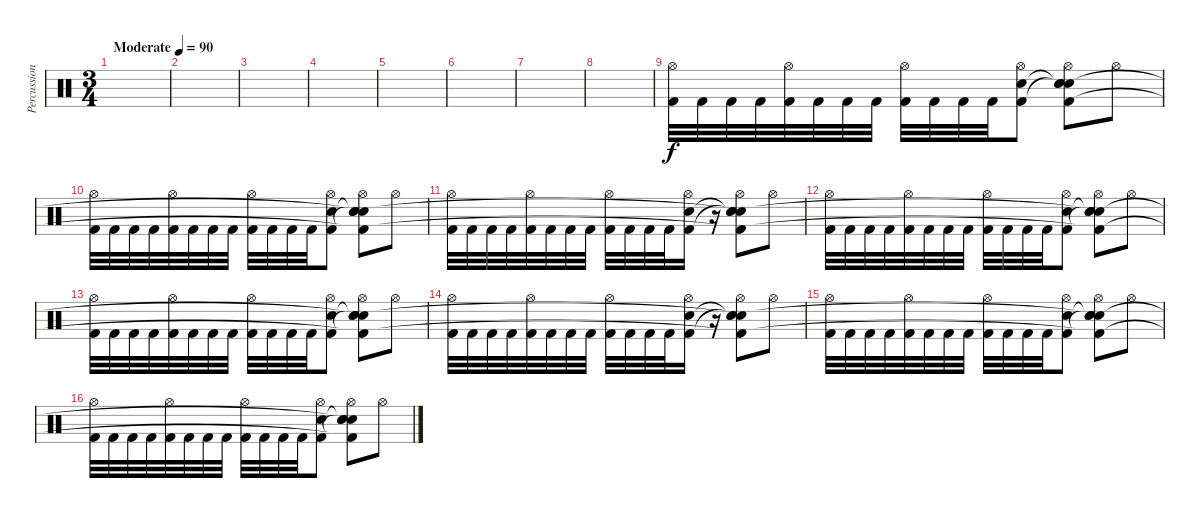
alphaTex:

\track ("Percussion" "Percussion") {instrument percussion}
\staff {score}
\articulation defaults
\ts (3 4)
\tempo (90 "Moderate")
\clef neutral
\ks c
|
|
|
|
|
|
|
|
("Hi-Hat (open)" "Kick (hit) 2").32 "Kick (hit) 2".32 "Kick (hit) 2".32 "Kick (hit) 2".32 ("Hi-Hat (open)" "Kick (hit) 2").32 "Kick (hit) 2".32 "Kick (hit) 2".32 "Kick (hit) 2".32 ("Hi-Hat (open)" "Kick (hit) 2").32 "Kick (hit) 2".32 "Kick (hit) 2".32 "Kick (hit) 2".32 ("Hi-Hat (open)" "Snare (hit) 2" "Kick (hit) 2").8 ("Hi-Hat (open)" "Snare (hit) 2"{t} "Snare (hit) 2"{t} "Snare (hit) 2" "Kick (hit) 2").8 "Hi-Hat (open)".8 |
("Hi-Hat (open)" "Kick (hit) 2").32 "Kick (hit) 2".32 "Kick (hit) 2".32 "Kick (hit) 2".32 ("Hi-Hat (open)" "Kick (hit) 2").32 "Kick (hit) 2".32 "Kick (hit) 2".32 "Kick (hit) 2".32 ("Hi-Hat (open)" "Kick (hit) 2").32 "Kick (hit) 2".32 "Kick (hit) 2".32 "Kick (hit) 2".32 ("Hi-Hat (open)" "Snare (hit) 2" "Kick (hit) 2").8 ("Hi-Hat (open)" "Snare (hit) 2"{t} "Snare (hit) 2"{t} "Snare (hit) 2"{t} "Kick (hit) 2"{t}).8 "Hi-Hat (open)".8 |
("Hi-Hat (open)" "Kick (hit) 2").32 "Kick (hit) 2".32 "Kick (hit) 2".32 "Kick (hit) 2".32 ("Hi-Hat (open)" "Kick (hit) 2").32 "Kick (hit) 2".32 "Kick (hit) 2".32 "Kick (hit) 2".32 ("Hi-Hat (open)" "Kick (hit) 2").32 "Kick (hit) 2".32 "Kick (hit) 2".32 "Kick (hit) 2".32 ("Hi-Hat (open)" "Snare (hit) 2" "Kick (hit) 2").16 r.16 ("Hi-Hat (open)" "Snare (hit) 2"{t} "Snare (hit) 2"{t} "Snare (hit) 2"{t} "Kick (hit) 2"{t}).8 "Hi-Hat (open)".8 |
("Hi-Hat (open)" "Kick (hit) 2").32 "Kick (hit) 2".32 "Kick (hit) 2".32 "Kick (hit) 2".32 ("Hi-Hat (open)" "Kick (hit) 2").32 "Kick (hit) 2".32 "Kick (hit) 2".32 "Kick (hit) 2".32 ("Hi-Hat (open)" "Kick (hit) 2").32 "Kick (hit) 2".32 "Kick (hit) 2".32 "Kick (hit) 2".32 ("Hi-Hat (open)" "Snare (hit) 2" "Kick (hit) 2").8 ("Hi-Hat (open)" "Snare (hit) 2"{t} "Snare (hit) 2"{t} "Snare (hit) 2"{t} "Kick (hit) 2"{t}).8 "Hi-Hat (open)".8 |
("Hi-Hat (open)" "Kick (hit) 2").32 "Kick (hit) 2".32 "Kick (hit) 2".32 "Kick (hit) 2".32 ("Hi-Hat (open)" "Kick (hit) 2").32 "Kick (hit) 2".32 "Kick (hit) 2".32 "Kick (hit) 2".32 ("Hi-Hat (open)" "Kick (hit) 2").32 "Kick (hit) 2".32 "Kick (hit) 2".32 "Kick (hit) 2".32 ("Hi-Hat (open)" "Snare (hit) 2" "Kick (hit) 2").8 ("Hi-Hat (open)" "Snare (hit) 2"{t} "Snare (hit) 2"{t} "Snare (hit) 2"{t} "Kick (hit) 2"{t}).8 "Hi-Hat (open)".8 |
("Hi-Hat (open)" "Kick (hit) 2").32 "Kick (hit) 2".32 "Kick (hit) 2".32 "Kick (hit) 2".32 ("Hi-Hat (open)" "Kick (hit) 2").32 "Kick (hit) 2".32 "Kick (hit) 2".32 "Kick (hit) 2".32 ("Hi-Hat (open)" "Kick (hit) 2").32 "Kick (hit) 2".32 "Kick (hit) 2".32 "Kick (hit) 2".32 ("Hi-Hat (open)" "Snare (hit) 2" "Kick (hit) 2").16 r.16 ("Hi-Hat (open)" "Snare (hit) 2"{t} "Snare (hit) 2"{t} "Snare (hit) 2"{t} "Kick (hit) 2"{t}).8 "Hi-Hat (open)".8 |
("Hi-Hat (open)" "Kick (hit) 2").32 "Kick (hit) 2".32 "Kick (hit) 2".32 "Kick (hit) 2".32 ("Hi-Hat (open)" "Kick (hit) 2").32 "Kick (hit) 2".32 "Kick (hit) 2".32 "Kick (hit) 2".32 ("Hi-Hat (open)" "Kick (hit) 2").32 "Kick (hit) 2".32 "Kick (hit) 2".32 "Kick (hit) 2".32 ("Hi-Hat (open)" "Snare (hit) 2" "Kick (hit) 2").8 ("Hi-Hat (open)" "Snare (hit) 2"{t} "Snare (hit) 2"{t} "Snare (hit) 2"{t} "Kick (hit) 2"{t}).8 "Hi-Hat (open)".8 |
("Hi-Hat (open)" "Kick (hit) 2").32 "Kick (hit) 2".32 "Kick (hit) 2".32 "Kick (hit) 2".32 ("Hi-Hat (open)" "Kick (hit) 2").32 "Kick (hit) 2".32 "Kick (hit) 2".32 "Kick (hit) 2".32 ("Hi-Hat (open)" "Kick (hit) 2").32 "Kick (hit) 2".32 "Kick (hit) 2".32 "Kick (hit) 2".32 ("Hi-Hat (open)" "Snare (hit) 2" "Kick (hit) 2").8 ("Hi-Hat (open)" "Snare (hit) 2"{t} "Snare (hit) 2"{t} "Snare (hit) 2"{t} "Kick (hit) 2"{t}).8 "Hi-Hat (open)".8
